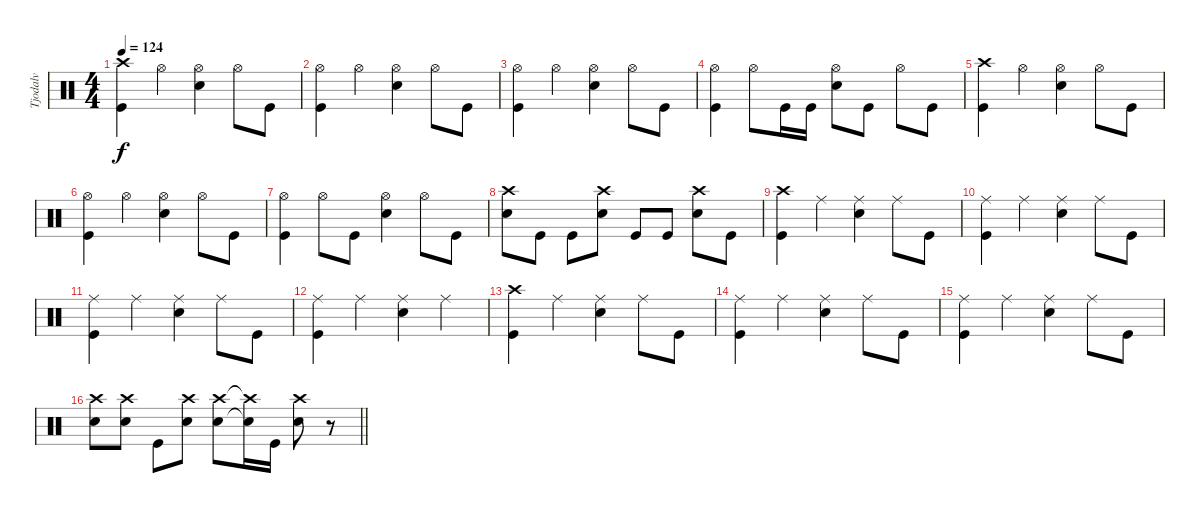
\track ("Tjodalv" "Tjodalv") {instrument percussion}
\staff {score}
\articulation defaults
\ts (4 4)
\tempo 124
\clef neutral
\ks c
("Crash high (hit)" "Kick (hit)").4{dy f} "Hi-Hat (open)".4 ("Hi-Hat (open)" "Snare (hit) 2").4 "Hi-Hat (open)".8 "Kick (hit)".8 |
("Kick (hit)" "Hi-Hat (open)").4 "Hi-Hat (open)".4 ("Hi-Hat (open)" "Snare (hit) 2").4 "Hi-Hat (open)".8 "Kick (hit)".8 |
("Kick (hit)" "Hi-Hat (open)").4 "Hi-Hat (open)".4 ("Hi-Hat (open)" "Snare (hit) 2").4 "Hi-Hat (open)".8 "Kick (hit)".8 |
("Kick (hit)" "Hi-Hat (open)").4 "Hi-Hat (open)".8 "Kick (hit)".16 "Kick (hit)".16 ("Hi-Hat (open)" "Snare (hit) 2").8 "Kick (hit)".8 "Hi-Hat (open)".8 "Kick (hit)".8 |
("Crash high (hit)" "Kick (hit)").4 "Hi-Hat (open)".4 ("Hi-Hat (open)" "Snare (hit) 2").4 "Hi-Hat (open)".8 "Kick (hit)".8 |
("Kick (hit)" "Hi-Hat (open)").4 "Hi-Hat (open)".4 ("Hi-Hat (open)" "Snare (hit) 2").4 "Hi-Hat (open)".8 "Kick (hit)".8 |
("Kick (hit)" "Hi-Hat (open)").4 "Hi-Hat (open)".8 "Kick (hit)".8 ("Hi-Hat (open)" "Snare (hit) 2").4 "Hi-Hat (open)".8 "Kick (hit)".8 |
("Crash high (hit)" "Snare (hit) 2").8 "Kick (hit)".8 "Kick (hit)".8 ("Crash high (hit)" "Snare (hit) 2").8 "Kick (hit)".8 "Kick (hit)".8 ("Crash high (hit)" "Snare (hit) 2").8 "Kick (hit)".8 |
("Crash high (hit)" "Kick (hit)").4 "Ride (middle)".4 ("Ride (middle)" "Snare (hit) 2").4 "Ride (middle)".8 "Kick (hit)".8 |
("Kick (hit)" "Ride (middle)").4 "Ride (middle)".4 ("Ride (middle)" "Snare (hit) 2").4 "Ride (middle)".8 "Kick (hit)".8 |
("Kick (hit)" "Ride (middle)").4 "Ride (middle)".4 ("Ride (middle)" "Snare (hit) 2").4 "Ride (middle)".8 "Kick (hit)".8 |
("Kick (hit)" "Ride (middle)").4 "Ride (middle)".4 ("Ride (middle)" "Snare (hit) 2").4 "Ride (middle)".4 |
("Crash high (hit)" "Kick (hit)").4 "Ride (middle)".4 ("Ride (middle)" "Snare (hit) 2").4 "Ride (middle)".8 "Kick (hit)".8 |
("Kick (hit)" "Ride (middle)").4 "Ride (middle)".4 ("Ride (middle)" "Snare (hit) 2").4 "Ride (middle)".8 "Kick (hit)".8 |
("Kick (hit)" "Ride (middle)").4 "Ride (middle)".4 ("Ride (middle)" "Snare (hit) 2").4 "Ride (middle)".8 "Kick (hit)".8 |
\barLineRight lightlight
("Crash high (hit)" "Snare (hit) 2").8 ("Crash high (hit)" "Snare (hit) 2").8 "Kick (hit)".8 ("Crash high (hit)" "Snare (hit) 2").8 ("Crash high (hit)" "Snare (hit) 2").8 ("Crash high (hit)"{t} "Snare (hit) 2"{t}).16 "Kick (hit)".16 ("Crash high (hit)" "Snare (hit) 2").8 r.8
